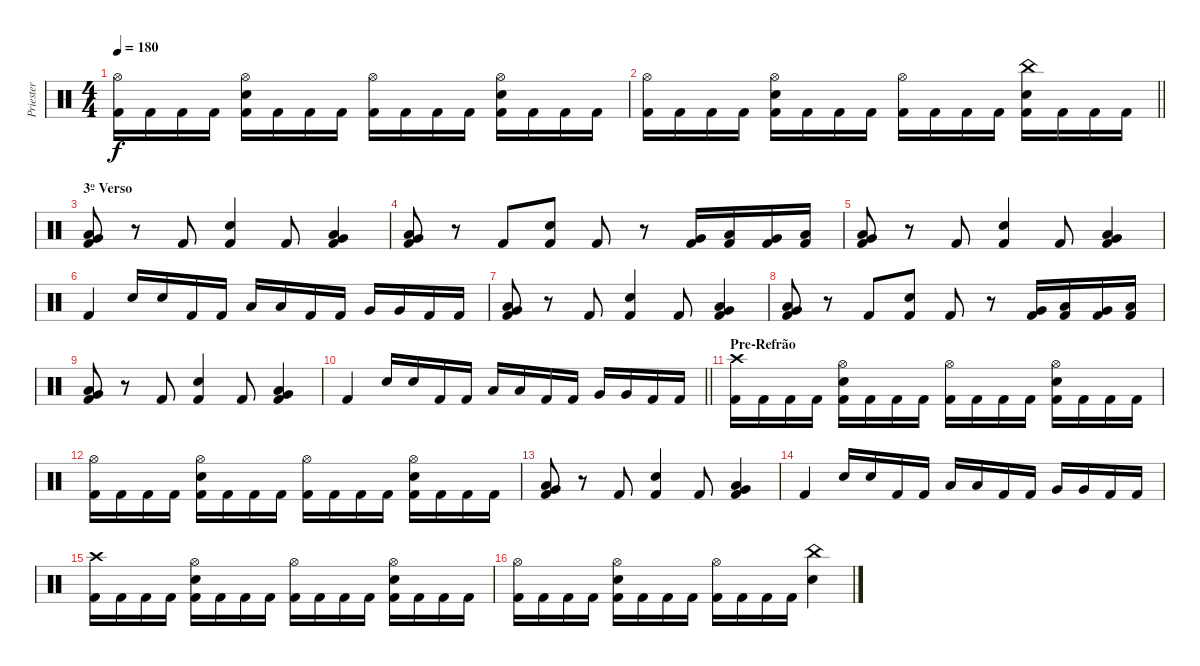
\track ("Priester" "Priester") {instrument percussion}
\staff {score}
\articulation defaults
\ts (4 4)
\tempo 180
\clef neutral
\ks c
("Hi-Hat (open)" "Kick (hit) 2").16{dy f} "Kick (hit) 2".16 "Kick (hit) 2".16 "Kick (hit) 2".16 ("Hi-Hat (open)" "Electric Snare (hit)" "Kick (hit) 2").16 "Kick (hit) 2".16 "Kick (hit) 2".16 "Kick (hit) 2".16 ("Hi-Hat (open)" "Kick (hit) 2").16 "Kick (hit) 2".16 "Kick (hit) 2".16 "Kick (hit) 2".16 ("Hi-Hat (open)" "Electric Snare (hit)" "Kick (hit) 2").16 "Kick (hit) 2".16 "Kick (hit) 2".16 "Kick (hit) 2".16 |
\barLineRight lightlight
("Hi-Hat (open)" "Kick (hit) 2").16 "Kick (hit) 2".16 "Kick (hit) 2".16 "Kick (hit) 2".16 ("Hi-Hat (open)" "Electric Snare (hit)" "Kick (hit) 2").16 "Kick (hit) 2".16 "Kick (hit) 2".16 "Kick (hit) 2".16 ("Hi-Hat (open)" "Kick (hit) 2").16 "Kick (hit) 2".16 "Kick (hit) 2".16 "Kick (hit) 2".16 ("China (hit)" "Electric Snare (hit)" "Kick (hit) 2").16 "Kick (hit) 2".16 "Kick (hit) 2".16 "Kick (hit) 2".16 |
\section ("" "3º Verso")
("Low Floor Tom (hit)" "Very Low Tom (hit)" "Kick (hit) 2").8 r.8 "Kick (hit) 2".8 ("Electric Snare (hit)" "Kick (hit) 2").4 "Kick (hit) 2".8 ("Low Floor Tom (hit)" "Very Low Tom (hit)" "Kick (hit) 2").4 |
("Low Floor Tom (hit)" "Very Low Tom (hit)" "Kick (hit) 2").8 r.8 "Kick (hit) 2".8 ("Electric Snare (hit)" "Kick (hit) 2").8 "Kick (hit) 2".8 r.8 ("Very Low Tom (hit)" "Kick (hit) 2").16 ("Low Floor Tom (hit)" "Kick (hit) 2").16 ("Very Low Tom (hit)" "Kick (hit) 2").16 ("Low Floor Tom (hit)" "Kick (hit) 2").16 |
("Low Floor Tom (hit)" "Very Low Tom (hit)" "Kick (hit) 2").8 r.8 "Kick (hit) 2".8 ("Electric Snare (hit)" "Kick (hit) 2").4 "Kick (hit) 2".8 ("Low Floor Tom (hit)" "Very Low Tom (hit)" "Kick (hit) 2").4 |
"Kick (hit) 2".4 "Electric Snare (hit)".16 "Electric Snare (hit)".16 "Kick (hit) 2".16 "Kick (hit) 2".16 "Low Tom (hit)".16 "Low Tom (hit)".16 "Kick (hit) 2".16 "Kick (hit) 2".16 "Very Low Tom (hit)".16 "Very Low Tom (hit)".16 "Kick (hit) 2".16 "Kick (hit) 2".16 |
("Low Floor Tom (hit)" "Very Low Tom (hit)" "Kick (hit) 2").8 r.8 "Kick (hit) 2".8 ("Electric Snare (hit)" "Kick (hit) 2").4 "Kick (hit) 2".8 ("Low Floor Tom (hit)" "Very Low Tom (hit)" "Kick (hit) 2").4 |
("Low Floor Tom (hit)" "Very Low Tom (hit)" "Kick (hit) 2").8 r.8 "Kick (hit) 2".8 ("Electric Snare (hit)" "Kick (hit) 2").8 "Kick (hit) 2".8 r.8 ("Very Low Tom (hit)" "Kick (hit) 2").16 ("Low Floor Tom (hit)" "Kick (hit) 2").16 ("Very Low Tom (hit)" "Kick (hit) 2").16 ("Low Floor Tom (hit)" "Kick (hit) 2").16 |
("Low Floor Tom (hit)" "Very Low Tom (hit)" "Kick (hit) 2").8 r.8 "Kick (hit) 2".8 ("Electric Snare (hit)" "Kick (hit) 2").4 "Kick (hit) 2".8 ("Low Floor Tom (hit)" "Very Low Tom (hit)" "Kick (hit) 2").4 |
\barLineRight lightlight "Kick (hit) 2".4 "Electric Snare (hit)".16 "Electric Snare (hit)".16 "Kick (hit) 2".16 "Kick (hit) 2".16 "Low Tom (hit)".16 "Low Tom (hit)".16 "Kick (hit) 2".16 "Kick (hit) 2".16 "Very Low Tom (hit)".16 "Very Low Tom (hit)".16 "Kick (hit) 2".16 "Kick (hit) 2".16
|
\section ("" "Pre-Refrão")
("Crash high (hit)" "Kick (hit) 2").16 "Kick (hit) 2".16 "Kick (hit) 2".16 "Kick (hit) 2".16 ("Hi-Hat (open)" "Electric Snare (hit)" "Kick (hit) 2").16 "Kick (hit) 2".16 "Kick (hit) 2".16 "Kick (hit) 2".16 ("Hi-Hat (open)" "Kick (hit) 2").16 "Kick (hit) 2".16 "Kick (hit) 2".16 "Kick (hit) 2".16 ("Hi-Hat (open)" "Electric Snare (hit)" "Kick (hit) 2").16 "Kick (hit) 2".16 "Kick (hit) 2".16 "Kick (hit) 2".16 |
("Hi-Hat (open)" "Kick (hit) 2").16 "Kick (hit) 2".16 "Kick (hit) 2".16 "Kick (hit) 2".16 ("Hi-Hat (open)" "Electric Snare (hit)" "Kick (hit) 2").16 "Kick (hit) 2".16 "Kick (hit) 2".16 "Kick (hit) 2".16 ("Hi-Hat (open)" "Kick (hit) 2").16 "Kick (hit) 2".16 "Kick (hit) 2".16 "Kick (hit) 2".16 ("Hi-Hat (open)" "Electric Snare (hit)" "Kick (hit) 2").16 "Kick (hit) 2".16 "Kick (hit) 2".16 "Kick (hit) 2".16 |
("Low Floor Tom (hit)" "Very Low Tom (hit)" "Kick (hit) 2").8 r.8 "Kick (hit) 2".8 ("Electric Snare (hit)" "Kick (hit) 2").4 "Kick (hit) 2".8 ("Low Floor Tom (hit)" "Very Low Tom (hit)" "Kick (hit) 2").4 |
"Kick (hit) 2".4 "Electric Snare (hit)".16 "Electric Snare (hit)".16 "Kick (hit) 2".16 "Kick (hit) 2".16 "Low Tom (hit)".16 "Low Tom (hit)".16 "Kick (hit) 2".16 "Kick (hit) 2".16 "Very Low Tom (hit)".16 "Very Low Tom (hit)".16 "Kick (hit) 2".16 "Kick (hit) 2".16 |
("Crash high (hit)" "Kick (hit) 2").16 "Kick (hit) 2".16 "Kick (hit) 2".16 "Kick (hit) 2".16 ("Hi-Hat (open)" "Electric Snare (hit)" "Kick (hit) 2").16 "Kick (hit) 2".16 "Kick (hit) 2".16 "Kick (hit) 2".16 ("Hi-Hat (open)" "Kick (hit) 2").16 "Kick (hit) 2".16 "Kick (hit) 2".16 "Kick (hit) 2".16 ("Hi-Hat (open)" "Electric Snare (hit)" "Kick (hit) 2").16 "Kick (hit) 2".16 "Kick (hit) 2".16 "Kick (hit) 2".16 |
("Hi-Hat (open)" "Kick (hit) 2").16 "Kick (hit) 2".16 "Kick (hit) 2".16 "Kick (hit) 2".16 ("Hi-Hat (open)" "Electric Snare (hit)" "Kick (hit) 2").16 "Kick (hit) 2".16 "Kick (hit) 2".16 "Kick (hit) 2".16 ("Hi-Hat (open)" "Kick (hit) 2").16 "Kick (hit) 2".16 "Kick (hit) 2".16 "Kick (hit) 2".16 ("China (hit)" "Electric Snare (hit)").4
